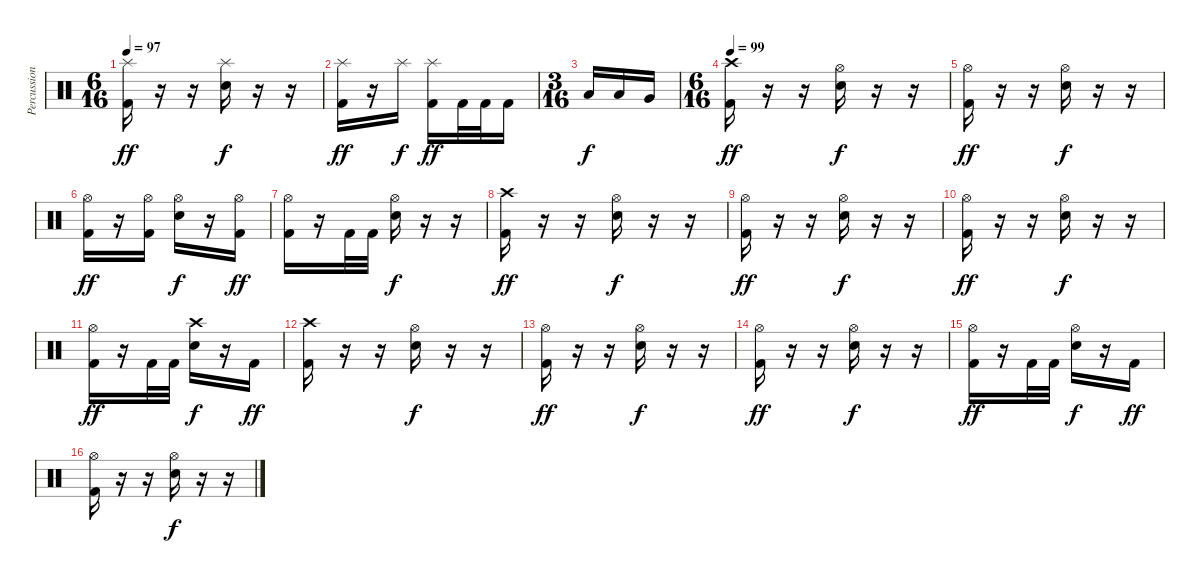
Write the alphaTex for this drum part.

\track ("Percussion" "Percussion") {instrument percussion}
\staff {score}
\articulation defaults
\ts (6 16)
\tempo 97
\clef neutral
\ks c
("Splash (hit)" "Kick (hit) 2").16{dy ff} r.16 r.16 ("Splash (hit)" "Electric Snare (hit)").16{dy f} r.16 r.16 |
("Splash (hit)" "Kick (hit) 2").16{dy ff} r.16 "Splash (hit)".16{dy f} ("Splash (hit)" "Kick (hit) 2").16{dy ff} "Kick (hit) 2".32 "Kick (hit) 2".32 "Kick (hit) 2".16 |
\ts (3 16)
"Low Tom (hit)".16{dy f} "Low Tom (hit)".16 "Very Low Tom (hit)".16 |
\ts (6 16)
\tempo 99
("Crash high (hit)" "Kick (hit) 2").16{dy ff} r.16 r.16 ("Hi-Hat (open)" "Electric Snare (hit)").16{dy f} r.16 r.16 |
("Hi-Hat (open)" "Kick (hit) 2").16{dy ff} r.16 r.16 ("Hi-Hat (open)" "Electric Snare (hit)").16{dy f} r.16 r.16 |
("Hi-Hat (open)" "Kick (hit) 2").16{dy ff} r.16 ("Hi-Hat (open)" "Kick (hit) 2").16 ("Hi-Hat (open)" "Electric Snare (hit)").16{dy f} r.16 ("Hi-Hat (open)" "Kick (hit) 2").16{dy ff} |
("Hi-Hat (open)" "Kick (hit) 2").16 r.16 "Kick (hit) 2".32 "Kick (hit) 2".32 ("Hi-Hat (open)" "Electric Snare (hit)").16{dy f} r.16 r.16 |
("Crash high (hit)" "Kick (hit) 2").16{dy ff} r.16 r.16 ("Hi-Hat (open)" "Electric Snare (hit)").16{dy f} r.16 r.16 |
("Hi-Hat (open)" "Kick (hit) 2").16{dy ff} r.16 r.16 ("Hi-Hat (open)" "Electric Snare (hit)").16{dy f} r.16 r.16 |
("Hi-Hat (open)" "Kick (hit) 2").16{dy ff} r.16 r.16 ("Hi-Hat (open)" "Electric Snare (hit)").16{dy f} r.16 r.16 |
("Hi-Hat (open)" "Kick (hit) 2").16{dy ff} r.16 "Kick (hit) 2".32 "Kick (hit) 2".32 ("Crash high (hit)" "Electric Snare (hit)").16{dy f} r.16 "Kick (hit) 2".16{dy ff} |
("Crash high (hit)" "Kick (hit) 2").16 r.16 r.16 ("Hi-Hat (open)" "Electric Snare (hit)").16{dy f} r.16 r.16 |
("Hi-Hat (open)" "Kick (hit) 2").16{dy ff} r.16 r.16 ("Hi-Hat (open)" "Electric Snare (hit)").16{dy f} r.16 r.16 |
("Hi-Hat (open)" "Kick (hit) 2").16{dy ff} r.16 r.16 ("Hi-Hat (open)" "Electric Snare (hit)").16{dy f} r.16 r.16 |
("Hi-Hat (open)" "Kick (hit) 2").16{dy ff} r.16 "Kick (hit) 2".32 "Kick (hit) 2".32 ("Hi-Hat (open)" "Electric Snare (hit)").16{dy f} r.16 "Kick (hit) 2".16{dy ff} |
("Hi-Hat (open)" "Kick (hit) 2").16 r.16 r.16 ("Hi-Hat (open)" "Electric Snare (hit)").16{dy f} r.16 r.16
